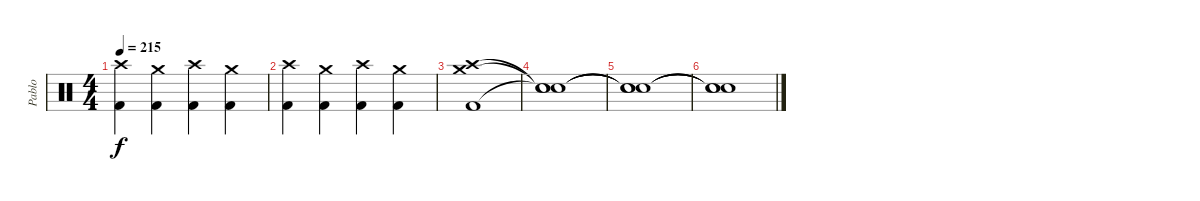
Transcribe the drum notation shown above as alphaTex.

\track ("Pablo" "Pablo") {instrument percussion}
\staff {score}
\articulation defaults
\ts (4 4)
\tempo 215
\clef neutral
\ks c
("Crash high (hit)" "Kick (hit) 2").4{dy f} ("Crash medium (hit)" "Kick (hit) 2").4 ("Crash high (hit)" "Kick (hit) 2").4 ("Crash medium (hit)" "Kick (hit) 2").4 |
("Crash high (hit)" "Kick (hit) 2").4 ("Crash medium (hit)" "Kick (hit) 2").4 ("Crash high (hit)" "Kick (hit) 2").4 ("Crash medium (hit)" "Kick (hit) 2").4 |
("Crash high (hit)" "Crash medium (hit)" "Kick (hit) 2").1 |
("Snare (hit)"{t} "Snare (hit)"{t} "Snare (hit)"{t}).1 |
("Snare (hit)"{t} "Snare (hit)"{t} "Snare (hit)"{t}).1 |
("Snare (hit)"{t} "Snare (hit)"{t} "Snare (hit)"{t}).1
